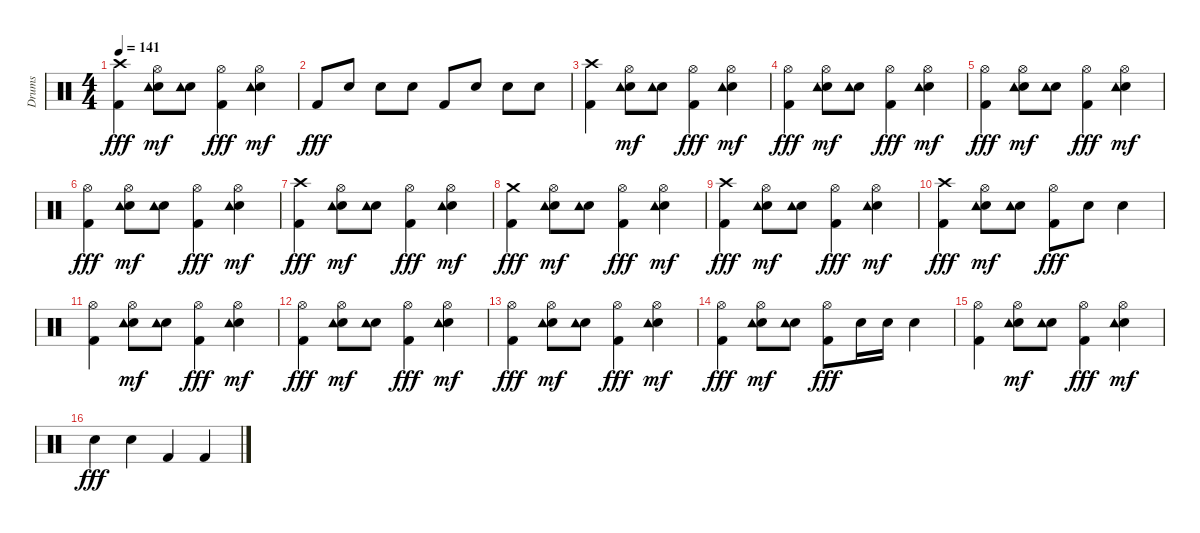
\track ("Drums" "Drums") {instrument percussion}
\staff {score}
\articulation defaults
\ts (4 4)
\tempo 141
\clef neutral
\ks c
("Crash high (hit)" "Kick (hit) 2").4{dy fff} ("Hi-Hat (open)" "Electric Snare (hit)" "Tambourine (hit)").8{dy mf} ("Electric Snare (hit)" "Tambourine (hit)").8 ("Hi-Hat (open)" "Kick (hit) 2").4{dy fff} ("Hi-Hat (open)" "Electric Snare (hit)" "Tambourine (hit)").4{dy mf} |
"Kick (hit) 2".8{dy fff} "Electric Snare (hit)".8 "Electric Snare (hit)".8 "Electric Snare (hit)".8 "Kick (hit) 2".8 "Electric Snare (hit)".8 "Electric Snare (hit)".8 "Electric Snare (hit)".8 |
("Crash high (hit)" "Kick (hit) 2").4 ("Hi-Hat (open)" "Electric Snare (hit)" "Tambourine (hit)").8{dy mf} ("Electric Snare (hit)" "Tambourine (hit)").8 ("Hi-Hat (open)" "Kick (hit) 2").4{dy fff} ("Hi-Hat (open)" "Electric Snare (hit)" "Tambourine (hit)").4{dy mf} |
("Hi-Hat (open)" "Kick (hit) 2").4{dy fff} ("Hi-Hat (open)" "Electric Snare (hit)" "Tambourine (hit)").8{dy mf} ("Electric Snare (hit)" "Tambourine (hit)").8 ("Hi-Hat (open)" "Kick (hit) 2").4{dy fff} ("Hi-Hat (open)" "Electric Snare (hit)" "Tambourine (hit)").4{dy mf} |
("Hi-Hat (open)" "Kick (hit) 2").4{dy fff} ("Hi-Hat (open)" "Electric Snare (hit)" "Tambourine (hit)").8{dy mf} ("Electric Snare (hit)" "Tambourine (hit)").8 ("Hi-Hat (open)" "Kick (hit) 2").4{dy fff} ("Hi-Hat (open)" "Electric Snare (hit)" "Tambourine (hit)").4{dy mf} |
("Hi-Hat (open)" "Kick (hit) 2").4{dy fff} ("Hi-Hat (open)" "Electric Snare (hit)" "Tambourine (hit)").8{dy mf} ("Electric Snare (hit)" "Tambourine (hit)").8 ("Hi-Hat (open)" "Kick (hit) 2").4{dy fff} ("Hi-Hat (open)" "Electric Snare (hit)" "Tambourine (hit)").4{dy mf} |
("Crash high (hit)" "Kick (hit) 2").4{dy fff} ("Hi-Hat (open)" "Electric Snare (hit)" "Tambourine (hit)").8{dy mf} ("Electric Snare (hit)" "Tambourine (hit)").8 ("Hi-Hat (open)" "Kick (hit) 2").4{dy fff} ("Hi-Hat (open)" "Electric Snare (hit)" "Tambourine (hit)").4{dy mf} |
("Crash medium (hit)" "Kick (hit) 2").4{dy fff} ("Hi-Hat (open)" "Electric Snare (hit)" "Tambourine (hit)").8{dy mf} ("Electric Snare (hit)" "Tambourine (hit)").8 ("Hi-Hat (open)" "Kick (hit) 2").4{dy fff} ("Hi-Hat (open)" "Electric Snare (hit)" "Tambourine (hit)").4{dy mf} |
("Crash high (hit)" "Kick (hit) 2").4{dy fff} ("Hi-Hat (open)" "Electric Snare (hit)" "Tambourine (hit)").8{dy mf} ("Electric Snare (hit)" "Tambourine (hit)").8 ("Hi-Hat (open)" "Kick (hit) 2").4{dy fff} ("Hi-Hat (open)" "Electric Snare (hit)" "Tambourine (hit)").4{dy mf} |
("Crash high (hit)" "Kick (hit) 2").4{dy fff} ("Hi-Hat (open)" "Electric Snare (hit)" "Tambourine (hit)").8{dy mf} ("Electric Snare (hit)" "Tambourine (hit)").8 ("Hi-Hat (open)" "Kick (hit) 2").8{dy fff} "Electric Snare (hit)".8 "Electric Snare (hit)".4 |
("Hi-Hat (open)" "Kick (hit) 2").4 ("Hi-Hat (open)" "Electric Snare (hit)" "Tambourine (hit)").8{dy mf} ("Electric Snare (hit)" "Tambourine (hit)").8 ("Hi-Hat (open)" "Kick (hit) 2").4{dy fff} ("Hi-Hat (open)" "Electric Snare (hit)" "Tambourine (hit)").4{dy mf} |
("Hi-Hat (open)" "Kick (hit) 2").4{dy fff} ("Hi-Hat (open)" "Electric Snare (hit)" "Tambourine (hit)").8{dy mf} ("Electric Snare (hit)" "Tambourine (hit)").8 ("Hi-Hat (open)" "Kick (hit) 2").4{dy fff} ("Hi-Hat (open)" "Electric Snare (hit)" "Tambourine (hit)").4{dy mf} |
("Hi-Hat (open)" "Kick (hit) 2").4{dy fff} ("Hi-Hat (open)" "Electric Snare (hit)" "Tambourine (hit)").8{dy mf} ("Electric Snare (hit)" "Tambourine (hit)").8 ("Hi-Hat (open)" "Kick (hit) 2").4{dy fff} ("Hi-Hat (open)" "Electric Snare (hit)" "Tambourine (hit)").4{dy mf} |
("Hi-Hat (open)" "Kick (hit) 2").4{dy fff} ("Hi-Hat (open)" "Electric Snare (hit)" "Tambourine (hit)").8{dy mf} ("Electric Snare (hit)" "Tambourine (hit)").8 ("Hi-Hat (open)" "Kick (hit) 2").8{dy fff} "Electric Snare (hit)".16 "Electric Snare (hit)".16 "Electric Snare (hit)".4 |
("Hi-Hat (open)" "Kick (hit) 2").4 ("Hi-Hat (open)" "Electric Snare (hit)" "Tambourine (hit)").8{dy mf} ("Electric Snare (hit)" "Tambourine (hit)").8 ("Hi-Hat (open)" "Kick (hit) 2").4{dy fff} ("Hi-Hat (open)" "Electric Snare (hit)" "Tambourine (hit)").4{dy mf} |
"Electric Snare (hit)".4{dy fff} "Electric Snare (hit)".4 "Kick (hit) 2".4 "Kick (hit) 2".4
